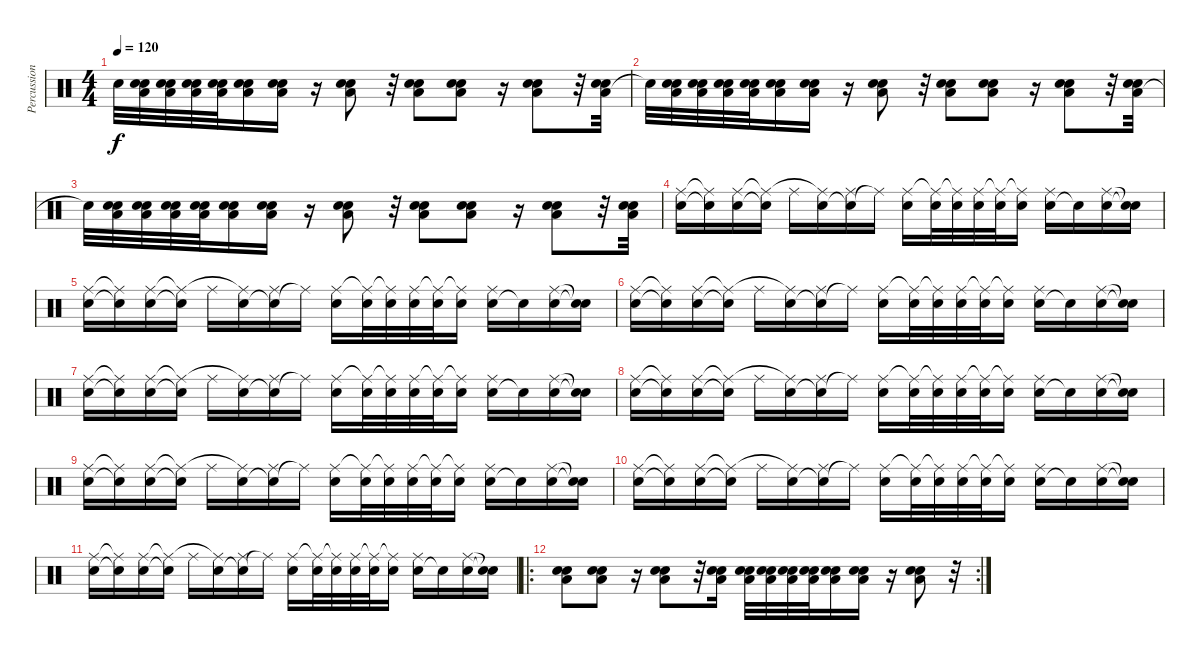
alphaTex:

\track ("Percussion" "Percussion") {instrument percussion}
\staff {score}
\articulation defaults
\ts (4 4)
\tempo 120
\clef neutral
\ks c "Electric Snare (hit)"{t}.32{dy f}
("Low Floor Tom (hit)" "Electric Snare (hit)" "Snare (hit) 2").32 ("Low Floor Tom (hit)" "Electric Snare (hit)" "Snare (hit) 2").32 ("Low Floor Tom (hit)" "Electric Snare (hit)" "Snare (hit) 2").32 ("Low Floor Tom (hit)" "Electric Snare (hit)" "Snare (hit) 2").32 ("Low Floor Tom (hit)" "Electric Snare (hit)" "Snare (hit) 2").16 ("Low Floor Tom (hit)" "Electric Snare (hit)" "Snare (hit) 2").16 r.16 ("Low Floor Tom (hit)" "Electric Snare (hit)" "Snare (hit) 2").8 r.32 ("Low Floor Tom (hit)" "Electric Snare (hit)" "Snare (hit) 2").8 ("Low Floor Tom (hit)" "Electric Snare (hit)" "Snare (hit) 2").8 r.16 ("Low Floor Tom (hit)" "Electric Snare (hit)" "Snare (hit) 2").8 r.32 ("Low Floor Tom (hit)" "Electric Snare (hit)" "Snare (hit) 2").32 |
"Electric Snare (hit)"{t}.32 ("Low Floor Tom (hit)" "Electric Snare (hit)" "Snare (hit) 2").32 ("Low Floor Tom (hit)" "Electric Snare (hit)" "Snare (hit) 2").32 ("Low Floor Tom (hit)" "Electric Snare (hit)" "Snare (hit) 2").32 ("Low Floor Tom (hit)" "Electric Snare (hit)" "Snare (hit) 2").32 ("Low Floor Tom (hit)" "Electric Snare (hit)" "Snare (hit) 2").16 ("Low Floor Tom (hit)" "Electric Snare (hit)" "Snare (hit) 2").16 r.16 ("Low Floor Tom (hit)" "Electric Snare (hit)" "Snare (hit) 2").8 r.32 ("Low Floor Tom (hit)" "Electric Snare (hit)" "Snare (hit) 2").8 ("Low Floor Tom (hit)" "Electric Snare (hit)" "Snare (hit) 2").8 r.16 ("Low Floor Tom (hit)" "Electric Snare (hit)" "Snare (hit) 2").8 r.32 ("Low Floor Tom (hit)" "Electric Snare (hit)" "Snare (hit) 2").32 |
"Electric Snare (hit)"{t}.32 ("Low Floor Tom (hit)" "Electric Snare (hit)" "Snare (hit) 2").32 ("Low Floor Tom (hit)" "Electric Snare (hit)" "Snare (hit) 2").32 ("Low Floor Tom (hit)" "Electric Snare (hit)" "Snare (hit) 2").32 ("Low Floor Tom (hit)" "Electric Snare (hit)" "Snare (hit) 2").32 ("Low Floor Tom (hit)" "Electric Snare (hit)" "Snare (hit) 2").16 ("Low Floor Tom (hit)" "Electric Snare (hit)" "Snare (hit) 2").16 r.16 ("Low Floor Tom (hit)" "Electric Snare (hit)" "Snare (hit) 2").8 r.32 ("Low Floor Tom (hit)" "Electric Snare (hit)" "Snare (hit) 2").8 ("Low Floor Tom (hit)" "Electric Snare (hit)" "Snare (hit) 2").8 r.16 ("Low Floor Tom (hit)" "Electric Snare (hit)" "Snare (hit) 2").8 r.32 ("Low Floor Tom (hit)" "Electric Snare (hit)" "Snare (hit) 2").32 |
("Electric Snare (hit)" "Ride (middle)").16 ("Snare (hit)"{t} "Ride (middle)"{t}).16 ("Electric Snare (hit)" "Ride (middle)").16 ("Snare (hit)"{t} "Ride (middle)"{t}).16 "Ride (middle)".16 ("Electric Snare (hit)" "Ride (middle)"{t}).16 ("Snare (hit)"{t} "Ride (middle)").16 "Ride (middle)"{t}.16 ("Electric Snare (hit)" "Ride (middle)").16 ("Electric Snare (hit)" "Ride (middle)"{t}).32 ("Electric Snare (hit)" "Ride (middle)"{t}).32 ("Electric Snare (hit)" "Ride (middle)").32 ("Electric Snare (hit)" "Ride (middle)"{t}).32 ("Electric Snare (hit)" "Ride (middle)"{t}).16 ("Electric Snare (hit)" "Ride (middle)").16 "Snare (hit)"{t}.16 ("Electric Snare (hit)" "Ride (middle)").16 ("Snare (hit)"{t} "Snare (hit)"{t}).16 |
("Electric Snare (hit)" "Ride (middle)").16 ("Snare (hit)"{t} "Ride (middle)"{t}).16 ("Electric Snare (hit)" "Ride (middle)").16 ("Snare (hit)"{t} "Ride (middle)"{t}).16 "Ride (middle)".16 ("Electric Snare (hit)" "Ride (middle)"{t}).16 ("Snare (hit)"{t} "Ride (middle)").16 "Ride (middle)"{t}.16 ("Electric Snare (hit)" "Ride (middle)").16 ("Electric Snare (hit)" "Ride (middle)"{t}).32 ("Electric Snare (hit)" "Ride (middle)"{t}).32 ("Electric Snare (hit)" "Ride (middle)").32 ("Electric Snare (hit)" "Ride (middle)"{t}).32 ("Electric Snare (hit)" "Ride (middle)"{t}).16 ("Electric Snare (hit)" "Ride (middle)").16 "Snare (hit)"{t}.16 ("Electric Snare (hit)" "Ride (middle)").16 ("Snare (hit)"{t} "Snare (hit)"{t}).16 |
("Electric Snare (hit)" "Ride (middle)").16 ("Snare (hit)"{t} "Ride (middle)"{t}).16 ("Electric Snare (hit)" "Ride (middle)").16 ("Snare (hit)"{t} "Ride (middle)"{t}).16 "Ride (middle)".16 ("Electric Snare (hit)" "Ride (middle)"{t}).16 ("Snare (hit)"{t} "Ride (middle)").16 "Ride (middle)"{t}.16 ("Electric Snare (hit)" "Ride (middle)").16 ("Electric Snare (hit)" "Ride (middle)"{t}).32 ("Electric Snare (hit)" "Ride (middle)"{t}).32 ("Electric Snare (hit)" "Ride (middle)").32 ("Electric Snare (hit)" "Ride (middle)"{t}).32 ("Electric Snare (hit)" "Ride (middle)"{t}).16 ("Electric Snare (hit)" "Ride (middle)").16 "Snare (hit)"{t}.16 ("Electric Snare (hit)" "Ride (middle)").16 ("Snare (hit)"{t} "Snare (hit)"{t}).16 |
("Electric Snare (hit)" "Ride (middle)").16 ("Snare (hit)"{t} "Ride (middle)"{t}).16 ("Electric Snare (hit)" "Ride (middle)").16 ("Snare (hit)"{t} "Ride (middle)"{t}).16 "Ride (middle)".16 ("Electric Snare (hit)" "Ride (middle)"{t}).16 ("Snare (hit)"{t} "Ride (middle)").16 "Ride (middle)"{t}.16 ("Electric Snare (hit)" "Ride (middle)").16 ("Electric Snare (hit)" "Ride (middle)"{t}).32 ("Electric Snare (hit)" "Ride (middle)"{t}).32 ("Electric Snare (hit)" "Ride (middle)").32 ("Electric Snare (hit)" "Ride (middle)"{t}).32 ("Electric Snare (hit)" "Ride (middle)"{t}).16 ("Electric Snare (hit)" "Ride (middle)").16 "Snare (hit)"{t}.16 ("Electric Snare (hit)" "Ride (middle)").16 ("Snare (hit)"{t} "Snare (hit)"{t}).16 |
("Electric Snare (hit)" "Ride (middle)").16 ("Snare (hit)"{t} "Ride (middle)"{t}).16 ("Electric Snare (hit)" "Ride (middle)").16 ("Snare (hit)"{t} "Ride (middle)"{t}).16 "Ride (middle)".16 ("Electric Snare (hit)" "Ride (middle)"{t}).16 ("Snare (hit)"{t} "Ride (middle)").16 "Ride (middle)"{t}.16 ("Electric Snare (hit)" "Ride (middle)").16 ("Electric Snare (hit)" "Ride (middle)"{t}).32 ("Electric Snare (hit)" "Ride (middle)"{t}).32 ("Electric Snare (hit)" "Ride (middle)").32 ("Electric Snare (hit)" "Ride (middle)"{t}).32 ("Electric Snare (hit)" "Ride (middle)"{t}).16 ("Electric Snare (hit)" "Ride (middle)").16 "Snare (hit)"{t}.16 ("Electric Snare (hit)" "Ride (middle)").16 ("Snare (hit)"{t} "Snare (hit)"{t}).16 |
("Electric Snare (hit)" "Ride (middle)").16 ("Snare (hit)"{t} "Ride (middle)"{t}).16 ("Electric Snare (hit)" "Ride (middle)").16 ("Snare (hit)"{t} "Ride (middle)"{t}).16 "Ride (middle)".16 ("Electric Snare (hit)" "Ride (middle)"{t}).16 ("Snare (hit)"{t} "Ride (middle)").16 "Ride (middle)"{t}.16 ("Electric Snare (hit)" "Ride (middle)").16 ("Electric Snare (hit)" "Ride (middle)"{t}).32 ("Electric Snare (hit)" "Ride (middle)"{t}).32 ("Electric Snare (hit)" "Ride (middle)").32 ("Electric Snare (hit)" "Ride (middle)"{t}).32 ("Electric Snare (hit)" "Ride (middle)"{t}).16 ("Electric Snare (hit)" "Ride (middle)").16 "Snare (hit)"{t}.16 ("Electric Snare (hit)" "Ride (middle)").16 ("Snare (hit)"{t} "Snare (hit)"{t}).16 |
("Electric Snare (hit)" "Ride (middle)").16 ("Snare (hit)"{t} "Ride (middle)"{t}).16 ("Electric Snare (hit)" "Ride (middle)").16 ("Snare (hit)"{t} "Ride (middle)"{t}).16 "Ride (middle)".16 ("Electric Snare (hit)" "Ride (middle)"{t}).16 ("Snare (hit)"{t} "Ride (middle)").16 "Ride (middle)"{t}.16 ("Electric Snare (hit)" "Ride (middle)").16 ("Electric Snare (hit)" "Ride (middle)"{t}).32 ("Electric Snare (hit)" "Ride (middle)"{t}).32 ("Electric Snare (hit)" "Ride (middle)").32 ("Electric Snare (hit)" "Ride (middle)"{t}).32 ("Electric Snare (hit)" "Ride (middle)"{t}).16 ("Electric Snare (hit)" "Ride (middle)").16 "Snare (hit)"{t}.16 ("Electric Snare (hit)" "Ride (middle)").16 ("Snare (hit)"{t} "Snare (hit)"{t}).16 |
("Electric Snare (hit)" "Ride (middle)").16 ("Snare (hit)"{t} "Ride (middle)"{t}).16 ("Electric Snare (hit)" "Ride (middle)").16 ("Snare (hit)"{t} "Ride (middle)"{t}).16 "Ride (middle)".16 ("Electric Snare (hit)" "Ride (middle)"{t}).16 ("Snare (hit)"{t} "Ride (middle)").16 "Ride (middle)"{t}.16 ("Electric Snare (hit)" "Ride (middle)").16 ("Electric Snare (hit)" "Ride (middle)"{t}).32 ("Electric Snare (hit)" "Ride (middle)"{t}).32 ("Electric Snare (hit)" "Ride (middle)").32 ("Electric Snare (hit)" "Ride (middle)"{t}).32 ("Electric Snare (hit)" "Ride (middle)"{t}).16 ("Electric Snare (hit)" "Ride (middle)").16 "Snare (hit)"{t}.16 ("Electric Snare (hit)" "Ride (middle)").16 ("Snare (hit)"{t} "Snare (hit)"{t}).16 |
\ro
\rc 2
("Low Floor Tom (hit)" "Electric Snare (hit)" "Snare (hit) 2").8 ("Low Floor Tom (hit)" "Electric Snare (hit)" "Snare (hit) 2").8 r.16 ("Low Floor Tom (hit)" "Electric Snare (hit)" "Snare (hit) 2").8 r.32 ("Low Floor Tom (hit)" "Electric Snare (hit)" "Snare (hit) 2").16 ("Low Floor Tom (hit)" "Electric Snare (hit)" "Snare (hit) 2").32 ("Low Floor Tom (hit)" "Electric Snare (hit)" "Snare (hit) 2").32 ("Low Floor Tom (hit)" "Electric Snare (hit)" "Snare (hit) 2").32 ("Low Floor Tom (hit)" "Electric Snare (hit)" "Snare (hit) 2").32 ("Low Floor Tom (hit)" "Electric Snare (hit)" "Snare (hit) 2").16 ("Low Floor Tom (hit)" "Electric Snare (hit)" "Snare (hit) 2").16 r.16 ("Low Floor Tom (hit)" "Electric Snare (hit)" "Snare (hit) 2").8 r.32
